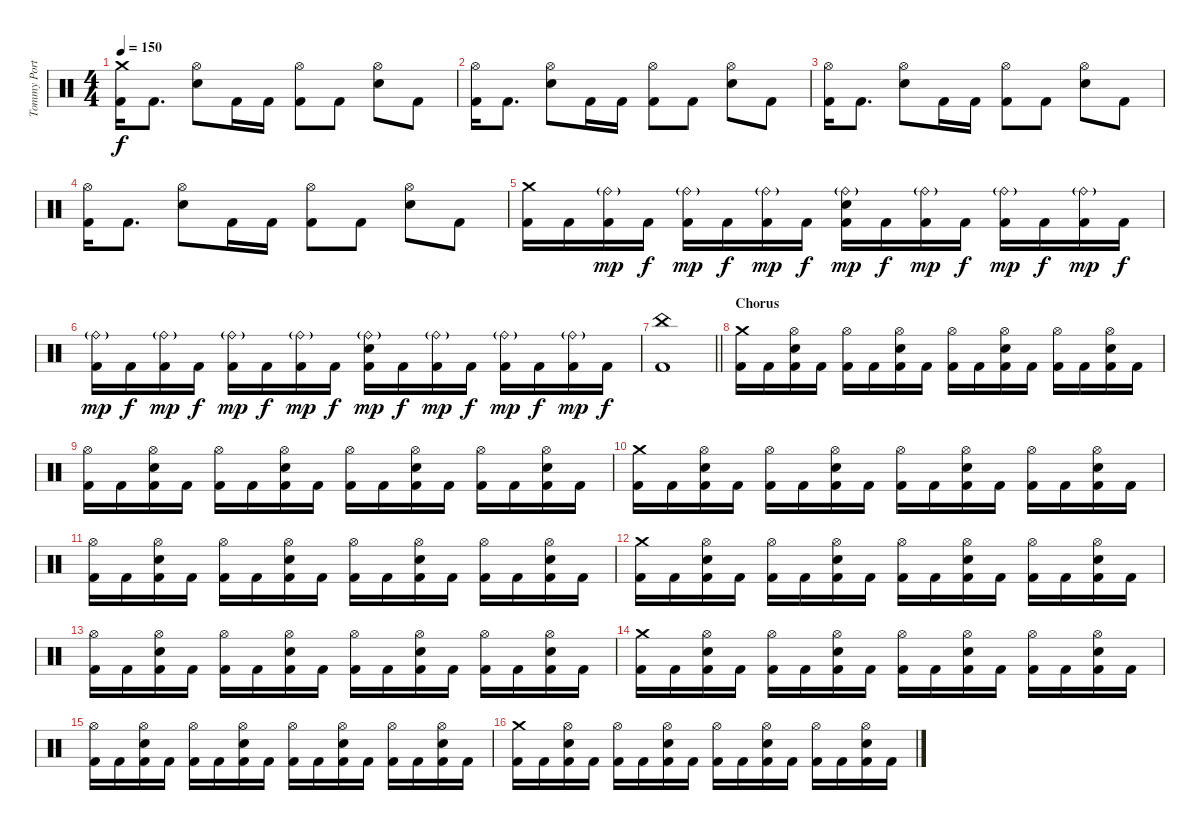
\track ("Tommy Portimo" "Tommy Port") {instrument percussion}
\staff {score}
\articulation defaults
\ts (4 4)
\tempo 150
\clef neutral
\ks c
("Crash medium (hit)" "Kick (hit) 2").16{dy f} "Kick (hit) 2".8{d} ("Hi-Hat (open)" "Electric Snare (hit)").8 "Kick (hit) 2".16 "Kick (hit) 2".16 ("Hi-Hat (open)" "Kick (hit) 2").8 "Kick (hit) 2".8 ("Hi-Hat (open)" "Electric Snare (hit)").8 "Kick (hit) 2".8 |
("Hi-Hat (open)" "Kick (hit) 2").16 "Kick (hit) 2".8{d} ("Hi-Hat (open)" "Electric Snare (hit)").8 "Kick (hit) 2".16 "Kick (hit) 2".16 ("Hi-Hat (open)" "Kick (hit) 2").8 "Kick (hit) 2".8 ("Hi-Hat (open)" "Electric Snare (hit)").8 "Kick (hit) 2".8 |
("Hi-Hat (open)" "Kick (hit) 2").16 "Kick (hit) 2".8{d} ("Hi-Hat (open)" "Electric Snare (hit)").8 "Kick (hit) 2".16 "Kick (hit) 2".16 ("Hi-Hat (open)" "Kick (hit) 2").8 "Kick (hit) 2".8 ("Hi-Hat (open)" "Electric Snare (hit)").8 "Kick (hit) 2".8 |
("Hi-Hat (open)" "Kick (hit) 2").16 "Kick (hit) 2".8{d} ("Hi-Hat (open)" "Electric Snare (hit)").8 "Kick (hit) 2".16 "Kick (hit) 2".16 ("Hi-Hat (open)" "Kick (hit) 2").8 "Kick (hit) 2".8 ("Hi-Hat (open)" "Electric Snare (hit)").8 "Kick (hit) 2".8 |
("Crash medium (hit)" "Kick (hit) 2").16 "Kick (hit) 2".16 ("Ride (bell)"{g} "Kick (hit) 2").16{dy mp} "Kick (hit) 2".16{dy f} ("Ride (bell)"{g} "Kick (hit) 2").16{dy mp} "Kick (hit) 2".16{dy f} ("Ride (bell)"{g} "Kick (hit) 2").16{dy mp} "Kick (hit) 2".16{dy f} ("Ride (bell)"{g} "Snare (hit) 2" "Kick (hit) 2").16{dy mp} "Kick (hit) 2".16{dy f} ("Ride (bell)"{g} "Kick (hit) 2").16{dy mp} "Kick (hit) 2".16{dy f} ("Ride (bell)"{g} "Kick (hit) 2").16{dy mp} "Kick (hit) 2".16{dy f} ("Ride (bell)"{g} "Kick (hit) 2").16{dy mp} "Kick (hit) 2".16{dy f} |
("Ride (bell)"{g} "Kick (hit) 2").16{dy mp} "Kick (hit) 2".16{dy f} ("Ride (bell)"{g} "Kick (hit) 2").16{dy mp} "Kick (hit) 2".16{dy f} ("Ride (bell)"{g} "Kick (hit) 2").16{dy mp} "Kick (hit) 2".16{dy f} ("Ride (bell)"{g} "Kick (hit) 2").16{dy mp} "Kick (hit) 2".16{dy f} ("Ride (bell)"{g} "Snare (hit) 2" "Kick (hit) 2").16{dy mp} "Kick (hit) 2".16{dy f} ("Ride (bell)"{g} "Kick (hit) 2").16{dy mp} "Kick (hit) 2".16{dy f} ("Ride (bell)"{g} "Kick (hit) 2").16{dy mp} "Kick (hit) 2".16{dy f} ("Ride (bell)"{g} "Kick (hit) 2").16{dy mp} "Kick (hit) 2".16{dy f} |
\barLineRight lightlight
("China (hit)" "Kick (hit) 2").1 |
\section ("" "Chorus")
("Crash medium (hit)" "Kick (hit) 2").16 "Kick (hit) 2".16 ("Hi-Hat (open)" "Electric Snare (hit)" "Kick (hit) 2").16 "Kick (hit) 2".16 ("Hi-Hat (open)" "Kick (hit) 2").16 "Kick (hit) 2".16 ("Hi-Hat (open)" "Electric Snare (hit)" "Kick (hit) 2").16 "Kick (hit) 2".16 ("Hi-Hat (open)" "Kick (hit) 2").16 "Kick (hit) 2".16 ("Hi-Hat (open)" "Electric Snare (hit)" "Kick (hit) 2").16 "Kick (hit) 2".16 ("Hi-Hat (open)" "Kick (hit) 2").16 "Kick (hit) 2".16 ("Hi-Hat (open)" "Electric Snare (hit)" "Kick (hit) 2").16 "Kick (hit) 2".16 |
("Hi-Hat (open)" "Kick (hit) 2").16 "Kick (hit) 2".16 ("Hi-Hat (open)" "Electric Snare (hit)" "Kick (hit) 2").16 "Kick (hit) 2".16 ("Hi-Hat (open)" "Kick (hit) 2").16 "Kick (hit) 2".16 ("Hi-Hat (open)" "Electric Snare (hit)" "Kick (hit) 2").16 "Kick (hit) 2".16 ("Hi-Hat (open)" "Kick (hit) 2").16 "Kick (hit) 2".16 ("Hi-Hat (open)" "Electric Snare (hit)" "Kick (hit) 2").16 "Kick (hit) 2".16 ("Hi-Hat (open)" "Kick (hit) 2").16 "Kick (hit) 2".16 ("Hi-Hat (open)" "Electric Snare (hit)" "Kick (hit) 2").16 "Kick (hit) 2".16 |
("Crash medium (hit)" "Kick (hit) 2").16 "Kick (hit) 2".16 ("Hi-Hat (open)" "Electric Snare (hit)" "Kick (hit) 2").16 "Kick (hit) 2".16 ("Hi-Hat (open)" "Kick (hit) 2").16 "Kick (hit) 2".16 ("Hi-Hat (open)" "Electric Snare (hit)" "Kick (hit) 2").16 "Kick (hit) 2".16 ("Hi-Hat (open)" "Kick (hit) 2").16 "Kick (hit) 2".16 ("Hi-Hat (open)" "Electric Snare (hit)" "Kick (hit) 2").16 "Kick (hit) 2".16 ("Hi-Hat (open)" "Kick (hit) 2").16 "Kick (hit) 2".16 ("Hi-Hat (open)" "Electric Snare (hit)" "Kick (hit) 2").16 "Kick (hit) 2".16 |
("Hi-Hat (open)" "Kick (hit) 2").16 "Kick (hit) 2".16 ("Hi-Hat (open)" "Electric Snare (hit)" "Kick (hit) 2").16 "Kick (hit) 2".16 ("Hi-Hat (open)" "Kick (hit) 2").16 "Kick (hit) 2".16 ("Hi-Hat (open)" "Electric Snare (hit)" "Kick (hit) 2").16 "Kick (hit) 2".16 ("Hi-Hat (open)" "Kick (hit) 2").16 "Kick (hit) 2".16 ("Hi-Hat (open)" "Electric Snare (hit)" "Kick (hit) 2").16 "Kick (hit) 2".16 ("Hi-Hat (open)" "Kick (hit) 2").16 "Kick (hit) 2".16 ("Hi-Hat (open)" "Electric Snare (hit)" "Kick (hit) 2").16 "Kick (hit) 2".16 |
("Crash medium (hit)" "Kick (hit) 2").16 "Kick (hit) 2".16 ("Hi-Hat (open)" "Electric Snare (hit)" "Kick (hit) 2").16 "Kick (hit) 2".16 ("Hi-Hat (open)" "Kick (hit) 2").16 "Kick (hit) 2".16 ("Hi-Hat (open)" "Electric Snare (hit)" "Kick (hit) 2").16 "Kick (hit) 2".16 ("Hi-Hat (open)" "Kick (hit) 2").16 "Kick (hit) 2".16 ("Hi-Hat (open)" "Electric Snare (hit)" "Kick (hit) 2").16 "Kick (hit) 2".16 ("Hi-Hat (open)" "Kick (hit) 2").16 "Kick (hit) 2".16 ("Hi-Hat (open)" "Electric Snare (hit)" "Kick (hit) 2").16 "Kick (hit) 2".16 |
("Hi-Hat (open)" "Kick (hit) 2").16 "Kick (hit) 2".16 ("Hi-Hat (open)" "Electric Snare (hit)" "Kick (hit) 2").16 "Kick (hit) 2".16 ("Hi-Hat (open)" "Kick (hit) 2").16 "Kick (hit) 2".16 ("Hi-Hat (open)" "Electric Snare (hit)" "Kick (hit) 2").16 "Kick (hit) 2".16 ("Hi-Hat (open)" "Kick (hit) 2").16 "Kick (hit) 2".16 ("Hi-Hat (open)" "Electric Snare (hit)" "Kick (hit) 2").16 "Kick (hit) 2".16 ("Hi-Hat (open)" "Kick (hit) 2").16 "Kick (hit) 2".16 ("Hi-Hat (open)" "Electric Snare (hit)" "Kick (hit) 2").16 "Kick (hit) 2".16 |
("Crash medium (hit)" "Kick (hit) 2").16 "Kick (hit) 2".16 ("Hi-Hat (open)" "Electric Snare (hit)" "Kick (hit) 2").16 "Kick (hit) 2".16 ("Hi-Hat (open)" "Kick (hit) 2").16 "Kick (hit) 2".16 ("Hi-Hat (open)" "Electric Snare (hit)" "Kick (hit) 2").16 "Kick (hit) 2".16 ("Hi-Hat (open)" "Kick (hit) 2").16 "Kick (hit) 2".16 ("Hi-Hat (open)" "Electric Snare (hit)" "Kick (hit) 2").16 "Kick (hit) 2".16 ("Hi-Hat (open)" "Kick (hit) 2").16 "Kick (hit) 2".16 ("Hi-Hat (open)" "Electric Snare (hit)" "Kick (hit) 2").16 "Kick (hit) 2".16 |
("Hi-Hat (open)" "Kick (hit) 2").16 "Kick (hit) 2".16 ("Hi-Hat (open)" "Electric Snare (hit)" "Kick (hit) 2").16 "Kick (hit) 2".16 ("Hi-Hat (open)" "Kick (hit) 2").16 "Kick (hit) 2".16 ("Hi-Hat (open)" "Electric Snare (hit)" "Kick (hit) 2").16 "Kick (hit) 2".16 ("Hi-Hat (open)" "Kick (hit) 2").16 "Kick (hit) 2".16 ("Hi-Hat (open)" "Electric Snare (hit)" "Kick (hit) 2").16 "Kick (hit) 2".16 ("Hi-Hat (open)" "Kick (hit) 2").16 "Kick (hit) 2".16 ("Hi-Hat (open)" "Electric Snare (hit)" "Kick (hit) 2").16 "Kick (hit) 2".16 |
("Crash medium (hit)" "Kick (hit) 2").16 "Kick (hit) 2".16 ("Hi-Hat (open)" "Electric Snare (hit)" "Kick (hit) 2").16 "Kick (hit) 2".16 ("Hi-Hat (open)" "Kick (hit) 2").16 "Kick (hit) 2".16 ("Hi-Hat (open)" "Electric Snare (hit)" "Kick (hit) 2").16 "Kick (hit) 2".16 ("Hi-Hat (open)" "Kick (hit) 2").16 "Kick (hit) 2".16 ("Hi-Hat (open)" "Electric Snare (hit)" "Kick (hit) 2").16 "Kick (hit) 2".16 ("Hi-Hat (open)" "Kick (hit) 2").16 "Kick (hit) 2".16 ("Hi-Hat (open)" "Electric Snare (hit)" "Kick (hit) 2").16 "Kick (hit) 2".16
